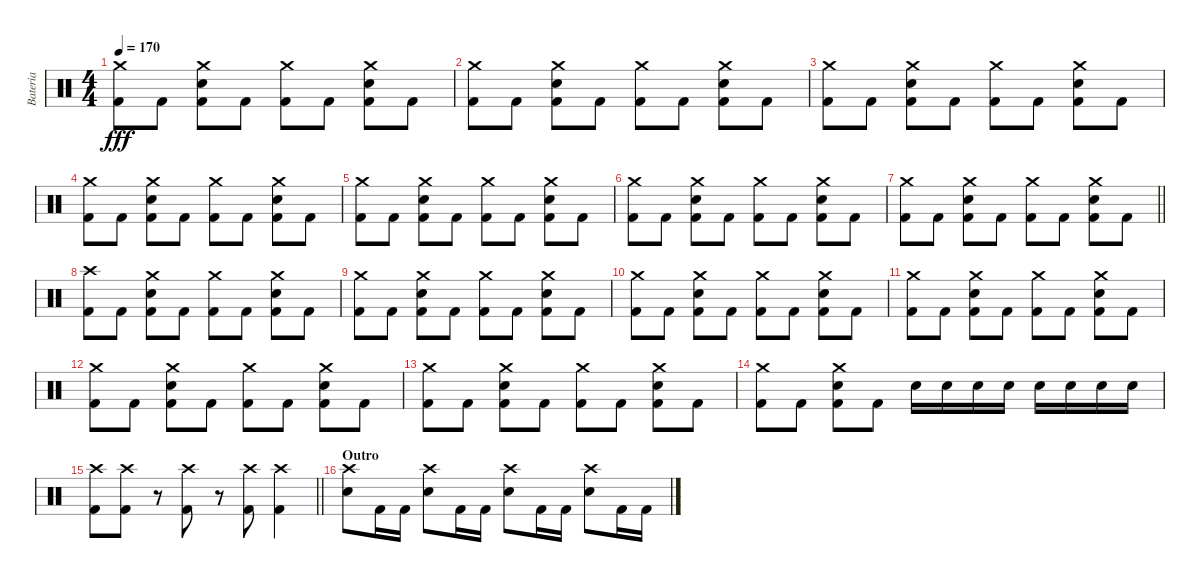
\track ("Bateria" "Bateria") {instrument percussion}
\staff {score}
\articulation defaults
\ts (4 4)
\tempo 170
\clef neutral
\ks c
("Crash medium (hit)" "Kick (hit) 2").8{dy fff} "Kick (hit) 2".8 ("Crash medium (hit)" "Electric Snare (hit)" "Kick (hit) 2").8 "Kick (hit) 2".8 ("Crash medium (hit)" "Kick (hit) 2").8 "Kick (hit) 2".8 ("Crash medium (hit)" "Electric Snare (hit)" "Kick (hit) 2").8 "Kick (hit) 2".8 |
("Crash medium (hit)" "Kick (hit) 2").8 "Kick (hit) 2".8 ("Crash medium (hit)" "Electric Snare (hit)" "Kick (hit) 2").8 "Kick (hit) 2".8 ("Crash medium (hit)" "Kick (hit) 2").8 "Kick (hit) 2".8 ("Crash medium (hit)" "Electric Snare (hit)" "Kick (hit) 2").8 "Kick (hit) 2".8 |
("Crash medium (hit)" "Kick (hit) 2").8 "Kick (hit) 2".8 ("Crash medium (hit)" "Electric Snare (hit)" "Kick (hit) 2").8 "Kick (hit) 2".8 ("Crash medium (hit)" "Kick (hit) 2").8 "Kick (hit) 2".8 ("Crash medium (hit)" "Electric Snare (hit)" "Kick (hit) 2").8 "Kick (hit) 2".8 |
("Crash medium (hit)" "Kick (hit) 2").8 "Kick (hit) 2".8 ("Crash medium (hit)" "Electric Snare (hit)" "Kick (hit) 2").8 "Kick (hit) 2".8 ("Crash medium (hit)" "Kick (hit) 2").8 "Kick (hit) 2".8 ("Crash medium (hit)" "Electric Snare (hit)" "Kick (hit) 2").8 "Kick (hit) 2".8 |
("Crash medium (hit)" "Kick (hit) 2").8 "Kick (hit) 2".8 ("Crash medium (hit)" "Electric Snare (hit)" "Kick (hit) 2").8 "Kick (hit) 2".8 ("Crash medium (hit)" "Kick (hit) 2").8 "Kick (hit) 2".8 ("Crash medium (hit)" "Electric Snare (hit)" "Kick (hit) 2").8 "Kick (hit) 2".8 |
("Crash medium (hit)" "Kick (hit) 2").8 "Kick (hit) 2".8 ("Crash medium (hit)" "Electric Snare (hit)" "Kick (hit) 2").8 "Kick (hit) 2".8 ("Crash medium (hit)" "Kick (hit) 2").8 "Kick (hit) 2".8 ("Crash medium (hit)" "Electric Snare (hit)" "Kick (hit) 2").8 "Kick (hit) 2".8 |
\barLineRight lightlight
("Crash medium (hit)" "Kick (hit) 2").8 "Kick (hit) 2".8 ("Crash medium (hit)" "Electric Snare (hit)" "Kick (hit) 2").8 "Kick (hit) 2".8 ("Crash medium (hit)" "Kick (hit) 2").8 "Kick (hit) 2".8 ("Crash medium (hit)" "Electric Snare (hit)" "Kick (hit) 2").8 "Kick (hit) 2".8 |
("Crash high (hit)" "Kick (hit) 2").8 "Kick (hit) 2".8 ("Crash medium (hit)" "Electric Snare (hit)" "Kick (hit) 2").8 "Kick (hit) 2".8 ("Crash medium (hit)" "Kick (hit) 2").8 "Kick (hit) 2".8 ("Crash medium (hit)" "Electric Snare (hit)" "Kick (hit) 2").8 "Kick (hit) 2".8 |
("Crash medium (hit)" "Kick (hit) 2").8 "Kick (hit) 2".8 ("Crash medium (hit)" "Electric Snare (hit)" "Kick (hit) 2").8 "Kick (hit) 2".8 ("Crash medium (hit)" "Kick (hit) 2").8 "Kick (hit) 2".8 ("Crash medium (hit)" "Electric Snare (hit)" "Kick (hit) 2").8 "Kick (hit) 2".8 |
("Crash medium (hit)" "Kick (hit) 2").8 "Kick (hit) 2".8 ("Crash medium (hit)" "Electric Snare (hit)" "Kick (hit) 2").8 "Kick (hit) 2".8 ("Crash medium (hit)" "Kick (hit) 2").8 "Kick (hit) 2".8 ("Crash medium (hit)" "Electric Snare (hit)" "Kick (hit) 2").8 "Kick (hit) 2".8 |
("Crash medium (hit)" "Kick (hit) 2").8 "Kick (hit) 2".8 ("Crash medium (hit)" "Electric Snare (hit)" "Kick (hit) 2").8 "Kick (hit) 2".8 ("Crash medium (hit)" "Kick (hit) 2").8 "Kick (hit) 2".8 ("Crash medium (hit)" "Electric Snare (hit)" "Kick (hit) 2").8 "Kick (hit) 2".8 |
("Crash medium (hit)" "Kick (hit) 2").8 "Kick (hit) 2".8 ("Crash medium (hit)" "Electric Snare (hit)" "Kick (hit) 2").8 "Kick (hit) 2".8 ("Crash medium (hit)" "Kick (hit) 2").8 "Kick (hit) 2".8 ("Crash medium (hit)" "Electric Snare (hit)" "Kick (hit) 2").8 "Kick (hit) 2".8 |
("Crash medium (hit)" "Kick (hit) 2").8 "Kick (hit) 2".8 ("Crash medium (hit)" "Electric Snare (hit)" "Kick (hit) 2").8 "Kick (hit) 2".8 ("Crash medium (hit)" "Kick (hit) 2").8 "Kick (hit) 2".8 ("Crash medium (hit)" "Electric Snare (hit)" "Kick (hit) 2").8 "Kick (hit) 2".8 |
("Crash medium (hit)" "Kick (hit) 2").8 "Kick (hit) 2".8 ("Crash medium (hit)" "Electric Snare (hit)" "Kick (hit) 2").8 "Kick (hit) 2".8 "Electric Snare (hit)".16 "Electric Snare (hit)".16 "Electric Snare (hit)".16 "Electric Snare (hit)".16 "Electric Snare (hit)".16 "Electric Snare (hit)".16 "Electric Snare (hit)".16 "Electric Snare (hit)".16 |
\barLineRight lightlight
("Crash high (hit)" "Kick (hit) 2").8 ("Crash high (hit)" "Kick (hit) 2").8 r.8 ("Crash high (hit)" "Kick (hit) 2").8 r.8 ("Crash high (hit)" "Kick (hit) 2").8 ("Crash high (hit)" "Kick (hit) 2").4 |
\section ("" "Outro")
("Crash high (hit)" "Electric Snare (hit)").8 "Kick (hit) 2".16 "Kick (hit) 2".16 ("Crash high (hit)" "Electric Snare (hit)").8 "Kick (hit) 2".16 "Kick (hit) 2".16 ("Crash high (hit)" "Electric Snare (hit)").8 "Kick (hit) 2".16 "Kick (hit) 2".16 ("Crash high (hit)" "Electric Snare (hit)").8 "Kick (hit) 2".16 "Kick (hit) 2".16
